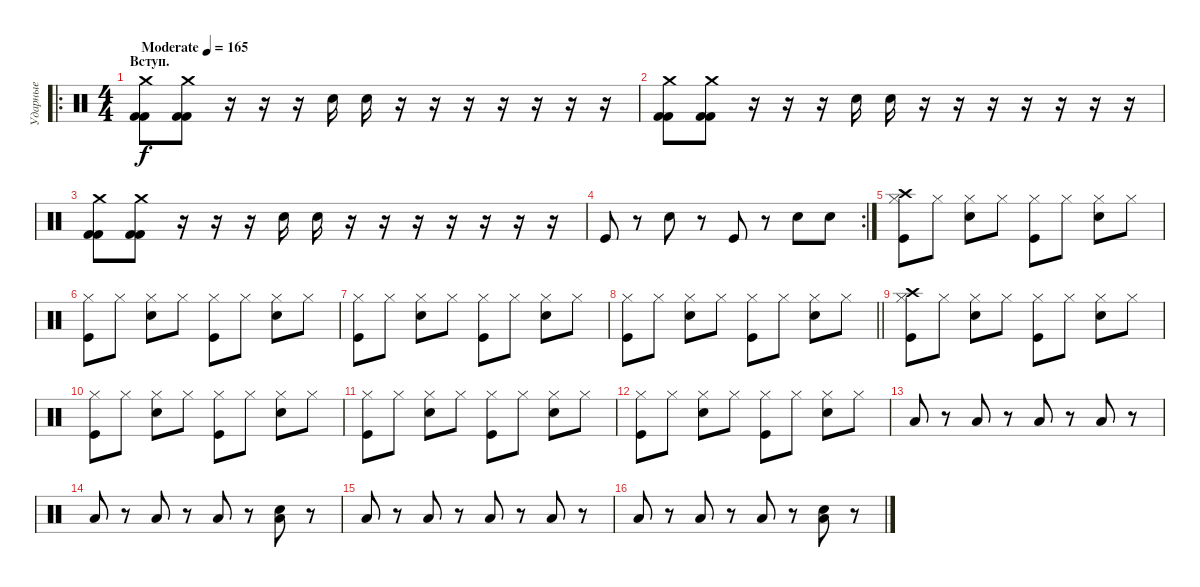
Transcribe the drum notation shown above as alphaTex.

\track ("Ударные" "Ударные") {instrument percussion}
\staff {score}
\articulation defaults
\ro
\ts (4 4)
\section ("" "Вступ.")
\tempo (165 "Moderate")
\clef neutral
\ks c
("Crash medium (hit)" "Kick (hit) 2" "Kick (hit) 2").8{dy f} ("Crash medium (hit)" "Kick (hit) 2" "Kick (hit) 2").8 r.16 r.16 r.16 "Electric Snare (hit)".16 "Electric Snare (hit)".16 r.16 r.16 r.16 r.16 r.16 r.16 r.16 |
("Crash medium (hit)" "Kick (hit) 2" "Kick (hit) 2").8 ("Crash medium (hit)" "Kick (hit) 2" "Kick (hit) 2").8 r.16 r.16 r.16 "Electric Snare (hit)".16 "Electric Snare (hit)".16 r.16 r.16 r.16 r.16 r.16 r.16 r.16 |
("Crash medium (hit)" "Kick (hit) 2" "Kick (hit) 2").8 ("Crash medium (hit)" "Kick (hit) 2" "Kick (hit) 2").8 r.16 r.16 r.16 "Electric Snare (hit)".16 "Electric Snare (hit)".16 r.16 r.16 r.16 r.16 r.16 r.16 r.16 |
\rc 2 "Kick (hit)".8
r.8 "Snare (hit) 2".8 r.8 "Kick (hit)".8 r.8 "Snare (hit) 2".8 "Snare (hit) 2".8 |
("Kick (hit)" "Hi-Hat (closed)" "Crash high (hit)").8 "Hi-Hat (closed)".8 ("Snare (hit) 2" "Hi-Hat (closed)").8 "Hi-Hat (closed)".8 ("Kick (hit)" "Hi-Hat (closed)").8 "Hi-Hat (closed)".8 ("Snare (hit) 2" "Hi-Hat (closed)").8 "Hi-Hat (closed)".8 |
("Kick (hit)" "Hi-Hat (closed)").8 "Hi-Hat (closed)".8 ("Snare (hit) 2" "Hi-Hat (closed)").8 "Hi-Hat (closed)".8 ("Kick (hit)" "Hi-Hat (closed)").8 "Hi-Hat (closed)".8 ("Snare (hit) 2" "Hi-Hat (closed)").8 "Hi-Hat (closed)".8 |
("Kick (hit)" "Hi-Hat (closed)").8 "Hi-Hat (closed)".8 ("Snare (hit) 2" "Hi-Hat (closed)").8 "Hi-Hat (closed)".8 ("Kick (hit)" "Hi-Hat (closed)").8 "Hi-Hat (closed)".8 ("Snare (hit) 2" "Hi-Hat (closed)").8 "Hi-Hat (closed)".8 |
\barLineRight lightlight
("Kick (hit)" "Hi-Hat (closed)").8 "Hi-Hat (closed)".8 ("Snare (hit) 2" "Hi-Hat (closed)").8 "Hi-Hat (closed)".8 ("Kick (hit)" "Hi-Hat (closed)").8 "Hi-Hat (closed)".8 ("Snare (hit) 2" "Hi-Hat (closed)").8 "Hi-Hat (closed)".8 |
("Kick (hit)" "Hi-Hat (closed)" "Crash high (hit)").8 "Hi-Hat (closed)".8 ("Snare (hit) 2" "Hi-Hat (closed)").8 "Hi-Hat (closed)".8 ("Kick (hit)" "Hi-Hat (closed)").8 "Hi-Hat (closed)".8 ("Snare (hit) 2" "Hi-Hat (closed)").8 "Hi-Hat (closed)".8 |
("Kick (hit)" "Hi-Hat (closed)").8 "Hi-Hat (closed)".8 ("Snare (hit) 2" "Hi-Hat (closed)").8 "Hi-Hat (closed)".8 ("Kick (hit)" "Hi-Hat (closed)").8 "Hi-Hat (closed)".8 ("Snare (hit) 2" "Hi-Hat (closed)").8 "Hi-Hat (closed)".8 |
("Kick (hit)" "Hi-Hat (closed)").8 "Hi-Hat (closed)".8 ("Snare (hit) 2" "Hi-Hat (closed)").8 "Hi-Hat (closed)".8 ("Kick (hit)" "Hi-Hat (closed)").8 "Hi-Hat (closed)".8 ("Snare (hit) 2" "Hi-Hat (closed)").8 "Hi-Hat (closed)".8 |
("Kick (hit)" "Hi-Hat (closed)").8 "Hi-Hat (closed)".8 ("Snare (hit) 2" "Hi-Hat (closed)").8 "Hi-Hat (closed)".8 ("Kick (hit)" "Hi-Hat (closed)").8 "Hi-Hat (closed)".8 ("Snare (hit) 2" "Hi-Hat (closed)").8 "Hi-Hat (closed)".8 |
"Low Floor Tom (hit)".8 r.8 "Low Floor Tom (hit)".8 r.8 "Low Floor Tom (hit)".8 r.8 "Low Floor Tom (hit)".8 r.8 |
"Low Floor Tom (hit)".8 r.8 "Low Floor Tom (hit)".8 r.8 "Low Floor Tom (hit)".8 r.8 ("Snare (hit) 2" "Low Floor Tom (hit)").8 r.8 |
"Low Floor Tom (hit)".8 r.8 "Low Floor Tom (hit)".8 r.8 "Low Floor Tom (hit)".8 r.8 "Low Floor Tom (hit)".8 r.8 |
"Low Floor Tom (hit)".8 r.8 "Low Floor Tom (hit)".8 r.8 "Low Floor Tom (hit)".8 r.8 ("Snare (hit) 2" "Low Floor Tom (hit)").8 r.8
